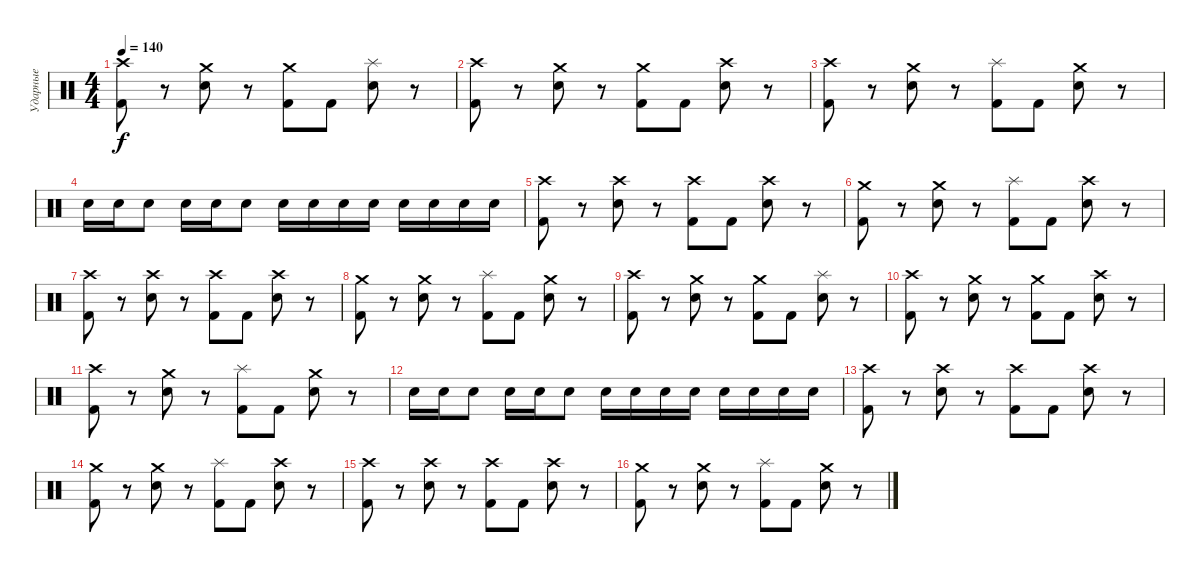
\track ("Ударные" "Ударные") {instrument percussion}
\staff {score}
\articulation defaults
\ts (4 4)
\tempo 140
\clef neutral
\ks c
("Crash high (hit)" "Kick (hit) 2").8{dy f} r.8 ("Crash medium (hit)" "Electric Snare (hit)").8 r.8 ("Crash medium (hit)" "Kick (hit) 2").8 "Kick (hit) 2".8 ("Splash (hit)" "Electric Snare (hit)").8 r.8 |
("Crash high (hit)" "Kick (hit) 2").8 r.8 ("Crash medium (hit)" "Electric Snare (hit)").8 r.8 ("Crash medium (hit)" "Kick (hit) 2").8 "Kick (hit) 2".8 ("Crash high (hit)" "Electric Snare (hit)").8 r.8 |
("Crash high (hit)" "Kick (hit) 2").8 r.8 ("Crash medium (hit)" "Electric Snare (hit)").8 r.8 ("Splash (hit)" "Kick (hit) 2").8 "Kick (hit) 2".8 ("Crash medium (hit)" "Electric Snare (hit)").8 r.8 |
"Electric Snare (hit)".16 "Electric Snare (hit)".16 "Electric Snare (hit)".8 "Electric Snare (hit)".16 "Electric Snare (hit)".16 "Electric Snare (hit)".8 "Electric Snare (hit)".16 "Electric Snare (hit)".16 "Electric Snare (hit)".16 "Electric Snare (hit)".16 "Electric Snare (hit)".16 "Electric Snare (hit)".16 "Electric Snare (hit)".16 "Electric Snare (hit)".16 |
("Crash high (hit)" "Kick (hit) 2").8 r.8 ("Crash high (hit)" "Electric Snare (hit)").8 r.8 ("Crash high (hit)" "Kick (hit) 2").8 "Kick (hit) 2".8 ("Crash high (hit)" "Electric Snare (hit)").8 r.8 |
("Crash medium (hit)" "Kick (hit) 2").8 r.8 ("Crash medium (hit)" "Electric Snare (hit)").8 r.8 ("Splash (hit)" "Kick (hit) 2").8 "Kick (hit) 2".8 ("Crash high (hit)" "Electric Snare (hit)").8 r.8 |
("Crash high (hit)" "Kick (hit) 2").8 r.8 ("Crash high (hit)" "Electric Snare (hit)").8 r.8 ("Crash high (hit)" "Kick (hit) 2").8 "Kick (hit) 2".8 ("Crash high (hit)" "Electric Snare (hit)").8 r.8 |
("Crash medium (hit)" "Kick (hit) 2").8 r.8 ("Crash medium (hit)" "Electric Snare (hit)").8 r.8 ("Splash (hit)" "Kick (hit) 2").8 "Kick (hit) 2".8 ("Crash medium (hit)" "Electric Snare (hit)").8 r.8 |
("Crash high (hit)" "Kick (hit) 2").8 r.8 ("Crash medium (hit)" "Electric Snare (hit)").8 r.8 ("Crash medium (hit)" "Kick (hit) 2").8 "Kick (hit) 2".8 ("Splash (hit)" "Electric Snare (hit)").8 r.8 |
("Crash high (hit)" "Kick (hit) 2").8 r.8 ("Crash medium (hit)" "Electric Snare (hit)").8 r.8 ("Crash medium (hit)" "Kick (hit) 2").8 "Kick (hit) 2".8 ("Crash high (hit)" "Electric Snare (hit)").8 r.8 |
("Crash high (hit)" "Kick (hit) 2").8 r.8 ("Crash medium (hit)" "Electric Snare (hit)").8 r.8 ("Splash (hit)" "Kick (hit) 2").8 "Kick (hit) 2".8 ("Crash medium (hit)" "Electric Snare (hit)").8 r.8 |
"Electric Snare (hit)".16 "Electric Snare (hit)".16 "Electric Snare (hit)".8 "Electric Snare (hit)".16 "Electric Snare (hit)".16 "Electric Snare (hit)".8 "Electric Snare (hit)".16 "Electric Snare (hit)".16 "Electric Snare (hit)".16 "Electric Snare (hit)".16 "Electric Snare (hit)".16 "Electric Snare (hit)".16 "Electric Snare (hit)".16 "Electric Snare (hit)".16 |
("Crash high (hit)" "Kick (hit) 2").8 r.8 ("Crash high (hit)" "Electric Snare (hit)").8 r.8 ("Crash high (hit)" "Kick (hit) 2").8 "Kick (hit) 2".8 ("Crash high (hit)" "Electric Snare (hit)").8 r.8 |
("Crash medium (hit)" "Kick (hit) 2").8 r.8 ("Crash medium (hit)" "Electric Snare (hit)").8 r.8 ("Splash (hit)" "Kick (hit) 2").8 "Kick (hit) 2".8 ("Crash high (hit)" "Electric Snare (hit)").8 r.8 |
("Crash high (hit)" "Kick (hit) 2").8 r.8 ("Crash high (hit)" "Electric Snare (hit)").8 r.8 ("Crash high (hit)" "Kick (hit) 2").8 "Kick (hit) 2".8 ("Crash high (hit)" "Electric Snare (hit)").8 r.8 |
("Crash medium (hit)" "Kick (hit) 2").8 r.8 ("Crash medium (hit)" "Electric Snare (hit)").8 r.8 ("Splash (hit)" "Kick (hit) 2").8 "Kick (hit) 2".8 ("Crash medium (hit)" "Electric Snare (hit)").8 r.8
